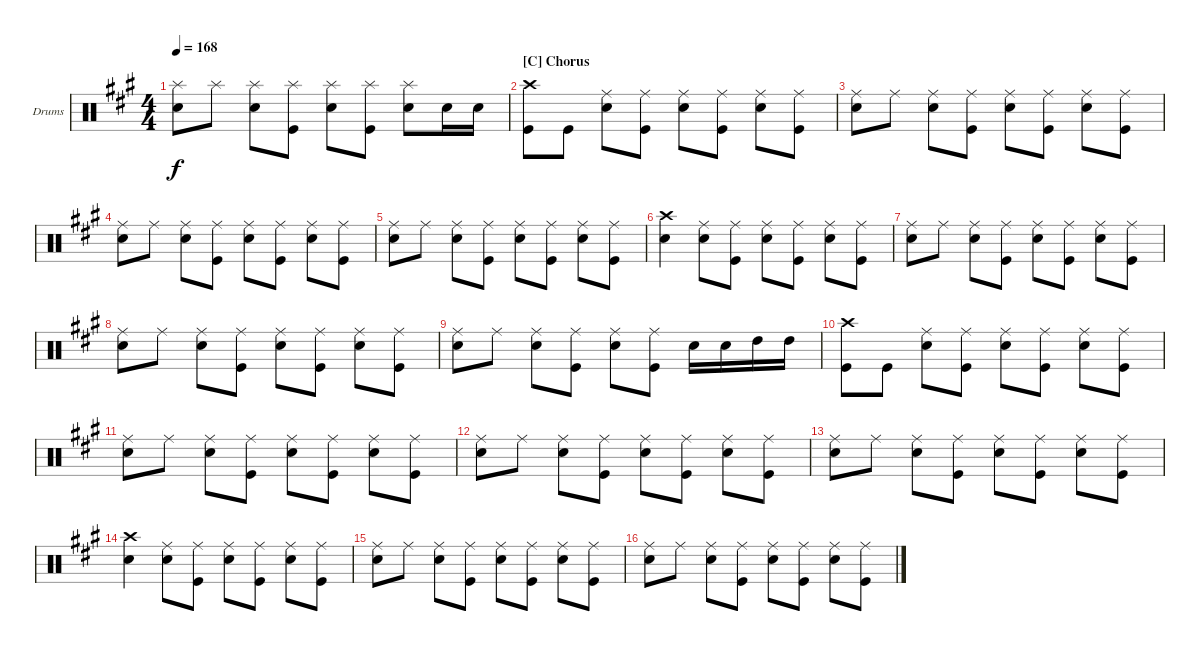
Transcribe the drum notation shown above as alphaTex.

\defaultSystemsLayout 4
\bracketExtendMode groupsimilarinstruments
\firstSystemTrackNameOrientation horizontal
\otherSystemsTrackNameOrientation horizontal
\track ("Drumkit" "Drums") {instrument percussion}
\staff {score}
\articulation defaults
\ts (4 4)
\tempo 168
\clef neutral
\scale
1.05801
\ks a
("Splash (hit)" "Snare (hit) 2").8{dy f} "Splash (hit)".8 ("Splash (hit)" "Snare (hit) 2").8 ("Splash (hit)" "Kick (hit)").8 ("Splash (hit)" "Snare (hit) 2").8 ("Splash (hit)" "Kick (hit)").8 ("Splash (hit)" "Snare (hit) 2").8 "Snare (hit) 2".16 "Snare (hit) 2".16 |
\section ("C" "Chorus")
\scale
0.941992 ("Crash high (hit)" "Kick (hit)").8 "Kick (hit)".8 ("Ride (middle)" "Snare (hit) 2").8 ("Ride (middle)" "Kick (hit)").8 ("Ride (middle)" "Snare (hit) 2").8 ("Ride (middle)" "Kick (hit)").8 ("Ride (middle)" "Snare (hit) 2").8 ("Ride (middle)" "Kick (hit)").8 |
\scale
1.05801 ("Ride (middle)" "Snare (hit) 2").8 "Ride (middle)".8 ("Ride (middle)" "Snare (hit) 2").8 ("Ride (middle)" "Kick (hit)").8 ("Ride (middle)" "Snare (hit) 2").8 ("Ride (middle)" "Kick (hit)").8 ("Ride (middle)" "Snare (hit) 2").8 ("Ride (middle)" "Kick (hit)").8 |
\scale
0.941992 ("Ride (middle)" "Snare (hit) 2").8 "Ride (middle)".8 ("Ride (middle)" "Snare (hit) 2").8 ("Ride (middle)" "Kick (hit)").8 ("Ride (middle)" "Snare (hit) 2").8 ("Ride (middle)" "Kick (hit)").8 ("Ride (middle)" "Snare (hit) 2").8 ("Ride (middle)" "Kick (hit)").8 |
\scale
1.05801 ("Ride (middle)" "Snare (hit) 2").8 "Ride (middle)".8 ("Ride (middle)" "Snare (hit) 2").8 ("Ride (middle)" "Kick (hit)").8 ("Ride (middle)" "Snare (hit) 2").8 ("Ride (middle)" "Kick (hit)").8 ("Ride (middle)" "Snare (hit) 2").8 ("Ride (middle)" "Kick (hit)").8 |
\scale
0.941992 ("Crash high (hit)" "Snare (hit) 2").4 ("Ride (middle)" "Snare (hit) 2").8 ("Ride (middle)" "Kick (hit)").8 ("Ride (middle)" "Snare (hit) 2").8 ("Ride (middle)" "Kick (hit)").8 ("Ride (middle)" "Snare (hit) 2").8 ("Ride (middle)" "Kick (hit)").8 |
\scale
1.05801 ("Ride (middle)" "Snare (hit) 2").8 "Ride (middle)".8 ("Ride (middle)" "Snare (hit) 2").8 ("Ride (middle)" "Kick (hit)").8 ("Ride (middle)" "Snare (hit) 2").8 ("Ride (middle)" "Kick (hit)").8 ("Ride (middle)" "Snare (hit) 2").8 ("Ride (middle)" "Kick (hit)").8 |
\scale
0.941992 ("Ride (middle)" "Snare (hit) 2").8 "Ride (middle)".8 ("Ride (middle)" "Snare (hit) 2").8 ("Ride (middle)" "Kick (hit)").8 ("Ride (middle)" "Snare (hit) 2").8 ("Ride (middle)" "Kick (hit)").8 ("Ride (middle)" "Snare (hit) 2").8 ("Ride (middle)" "Kick (hit)").8 |
\scale
1.05801 ("Ride (middle)" "Snare (hit) 2").8 "Ride (middle)".8 ("Ride (middle)" "Snare (hit) 2").8 ("Ride (middle)" "Kick (hit)").8 ("Ride (middle)" "Snare (hit) 2").8 ("Ride (middle)" "Kick (hit)").8 "Snare (hit) 2".16 "Snare (hit) 2".16 "High Tom (hit)".16 "High Tom (hit)".16 |
\scale
0.941992 ("Crash high (hit)" "Kick (hit)").8 "Kick (hit)".8 ("Ride (middle)" "Snare (hit) 2").8 ("Ride (middle)" "Kick (hit)").8 ("Ride (middle)" "Snare (hit) 2").8 ("Ride (middle)" "Kick (hit)").8 ("Ride (middle)" "Snare (hit) 2").8 ("Ride (middle)" "Kick (hit)").8 |
\scale
1.05801 ("Ride (middle)" "Snare (hit) 2").8 "Ride (middle)".8 ("Ride (middle)" "Snare (hit) 2").8 ("Ride (middle)" "Kick (hit)").8 ("Ride (middle)" "Snare (hit) 2").8 ("Ride (middle)" "Kick (hit)").8 ("Ride (middle)" "Snare (hit) 2").8 ("Ride (middle)" "Kick (hit)").8 |
\scale
0.941992 ("Ride (middle)" "Snare (hit) 2").8 "Ride (middle)".8 ("Ride (middle)" "Snare (hit) 2").8 ("Ride (middle)" "Kick (hit)").8 ("Ride (middle)" "Snare (hit) 2").8 ("Ride (middle)" "Kick (hit)").8 ("Ride (middle)" "Snare (hit) 2").8 ("Ride (middle)" "Kick (hit)").8 |
\scale
1.05801 ("Ride (middle)" "Snare (hit) 2").8 "Ride (middle)".8 ("Ride (middle)" "Snare (hit) 2").8 ("Ride (middle)" "Kick (hit)").8 ("Ride (middle)" "Snare (hit) 2").8 ("Ride (middle)" "Kick (hit)").8 ("Ride (middle)" "Snare (hit) 2").8 ("Ride (middle)" "Kick (hit)").8 |
\scale
0.941992 ("Crash high (hit)" "Snare (hit) 2").4 ("Ride (middle)" "Snare (hit) 2").8 ("Ride (middle)" "Kick (hit)").8 ("Ride (middle)" "Snare (hit) 2").8 ("Ride (middle)" "Kick (hit)").8 ("Ride (middle)" "Snare (hit) 2").8 ("Ride (middle)" "Kick (hit)").8 |
\scale
1.05801 ("Ride (middle)" "Snare (hit) 2").8 "Ride (middle)".8 ("Ride (middle)" "Snare (hit) 2").8 ("Ride (middle)" "Kick (hit)").8 ("Ride (middle)" "Snare (hit) 2").8 ("Ride (middle)" "Kick (hit)").8 ("Ride (middle)" "Snare (hit) 2").8 ("Ride (middle)" "Kick (hit)").8 |
\scale
0.941992 ("Ride (middle)" "Snare (hit) 2").8 "Ride (middle)".8 ("Ride (middle)" "Snare (hit) 2").8 ("Ride (middle)" "Kick (hit)").8 ("Ride (middle)" "Snare (hit) 2").8 ("Ride (middle)" "Kick (hit)").8 ("Ride (middle)" "Snare (hit) 2").8 ("Ride (middle)" "Kick (hit)").8
